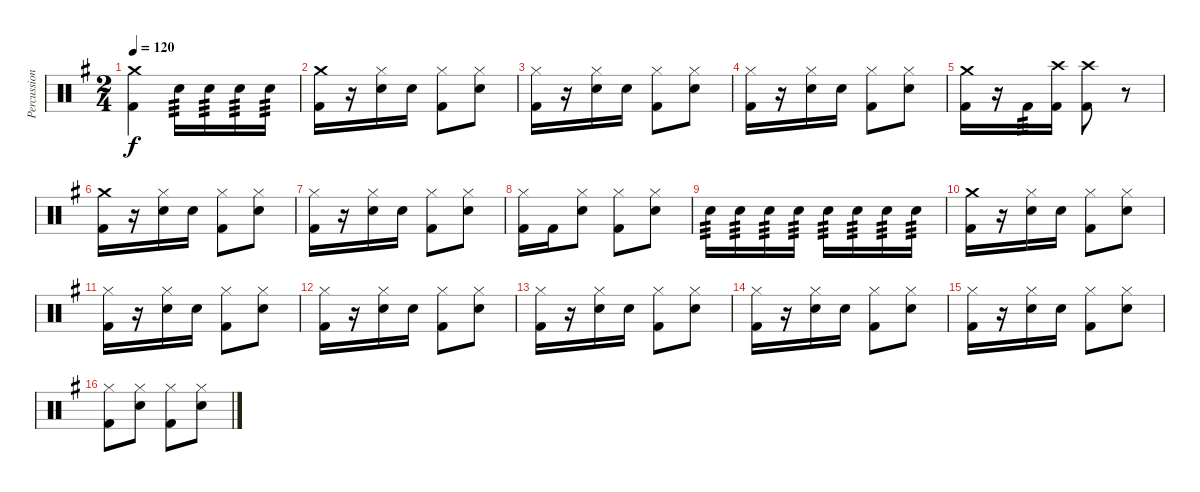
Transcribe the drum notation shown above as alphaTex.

\track ("Percussion" "Percussion") {instrument percussion}
\staff {score}
\articulation defaults
\ts (2 4)
\tempo 120
\clef neutral
\ks g
("Crash medium (hit)" "Kick (hit) 2").4{dy f} "Snare (hit) 2".16{tp 3} "Snare (hit) 2".16{tp 3} "Snare (hit) 2".16{tp 3} "Snare (hit) 2".16{tp 3} |
("Crash medium (hit)" "Kick (hit) 2").16 r.16 ("Hi-Hat (closed)" "Snare (hit) 2").16 "Snare (hit) 2".16 ("Hi-Hat (closed)" "Kick (hit) 2").8 ("Hi-Hat (closed)" "Snare (hit) 2").8 |
("Hi-Hat (closed)" "Kick (hit) 2").16 r.16 ("Hi-Hat (closed)" "Snare (hit) 2").16 "Snare (hit) 2".16 ("Hi-Hat (closed)" "Kick (hit) 2").8 ("Hi-Hat (closed)" "Snare (hit) 2").8 |
("Hi-Hat (closed)" "Kick (hit) 2").16 r.16 ("Hi-Hat (closed)" "Snare (hit) 2").16 "Snare (hit) 2".16 ("Hi-Hat (closed)" "Kick (hit) 2").8 ("Hi-Hat (closed)" "Snare (hit) 2").8 |
("Crash medium (hit)" "Kick (hit) 2").16 r.16 "Kick (hit) 2".16{tp 3} ("Crash high (hit)" "Kick (hit) 2").16 ("Crash high (hit)" "Kick (hit) 2").8 r.8 |
("Crash medium (hit)" "Kick (hit) 2").16 r.16 ("Hi-Hat (closed)" "Snare (hit) 2").16 "Snare (hit) 2".16 ("Hi-Hat (closed)" "Kick (hit) 2").8 ("Hi-Hat (closed)" "Snare (hit) 2").8 |
("Hi-Hat (closed)" "Kick (hit) 2").16 r.16 ("Hi-Hat (closed)" "Snare (hit) 2").16 "Snare (hit) 2".16 ("Hi-Hat (closed)" "Kick (hit) 2").8 ("Hi-Hat (closed)" "Snare (hit) 2").8 |
("Hi-Hat (closed)" "Kick (hit) 2").16 "Kick (hit) 2".16 ("Hi-Hat (closed)" "Snare (hit) 2").8 ("Hi-Hat (closed)" "Kick (hit) 2").8 ("Hi-Hat (closed)" "Snare (hit) 2").8 |
"Snare (hit) 2".16{tp 3} "Snare (hit) 2".16{tp 3} "Snare (hit) 2".16{tp 3} "Snare (hit) 2".16{tp 3} "Snare (hit) 2".16{tp 3} "Snare (hit) 2".16{tp 3} "Snare (hit) 2".16{tp 3} "Snare (hit) 2".16{tp 3} |
("Crash medium (hit)" "Kick (hit) 2").16 r.16 ("Hi-Hat (closed)" "Snare (hit) 2").16 "Snare (hit) 2".16 ("Hi-Hat (closed)" "Kick (hit) 2").8 ("Hi-Hat (closed)" "Snare (hit) 2").8 |
("Hi-Hat (closed)" "Kick (hit) 2").16 r.16 ("Hi-Hat (closed)" "Snare (hit) 2").16 "Snare (hit) 2".16 ("Hi-Hat (closed)" "Kick (hit) 2").8 ("Hi-Hat (closed)" "Snare (hit) 2").8 |
("Hi-Hat (closed)" "Kick (hit) 2").16 r.16 ("Hi-Hat (closed)" "Snare (hit) 2").16 "Snare (hit) 2".16 ("Hi-Hat (closed)" "Kick (hit) 2").8 ("Hi-Hat (closed)" "Snare (hit) 2").8 |
("Hi-Hat (closed)" "Kick (hit) 2").16 r.16 ("Hi-Hat (closed)" "Snare (hit) 2").16 "Snare (hit) 2".16 ("Hi-Hat (closed)" "Kick (hit) 2").8 ("Hi-Hat (closed)" "Snare (hit) 2").8 |
("Hi-Hat (closed)" "Kick (hit) 2").16 r.16 ("Hi-Hat (closed)" "Snare (hit) 2").16 "Snare (hit) 2".16 ("Hi-Hat (closed)" "Kick (hit) 2").8 ("Hi-Hat (closed)" "Snare (hit) 2").8 |
("Hi-Hat (closed)" "Kick (hit) 2").16 r.16 ("Hi-Hat (closed)" "Snare (hit) 2").16 "Snare (hit) 2".16 ("Hi-Hat (closed)" "Kick (hit) 2").8 ("Hi-Hat (closed)" "Snare (hit) 2").8 |
("Hi-Hat (closed)" "Kick (hit) 2").8 ("Hi-Hat (closed)" "Snare (hit) 2").8 ("Hi-Hat (closed)" "Kick (hit) 2").8 ("Hi-Hat (closed)" "Snare (hit) 2").8
